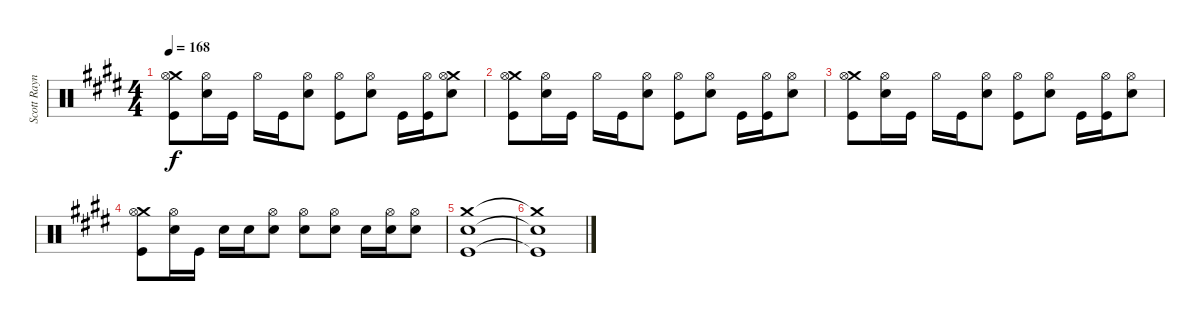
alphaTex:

\track ("Scott Raynor" "Scott Rayn") {instrument percussion}
\staff {score}
\articulation defaults
\ts (4 4)
\tempo 168
\clef neutral
\ks e
("Crash medium (hit)" "Hi-Hat (open)" "Kick (hit)").8{dy f} ("Hi-Hat (open)" "Electric Snare (hit)").16 "Kick (hit)".16 "Hi-Hat (open)".16 "Kick (hit)".16 ("Hi-Hat (open)" "Electric Snare (hit)").8 ("Hi-Hat (open)" "Kick (hit)").8 ("Hi-Hat (open)" "Electric Snare (hit)").8 "Kick (hit)".16 ("Hi-Hat (open)" "Kick (hit)").16 ("Crash medium (hit)" "Hi-Hat (open)" "Electric Snare (hit)").8 |
("Crash medium (hit)" "Hi-Hat (open)" "Kick (hit)").8 ("Hi-Hat (open)" "Electric Snare (hit)").16 "Kick (hit)".16 "Hi-Hat (open)".16 "Kick (hit)".16 ("Hi-Hat (open)" "Electric Snare (hit)").8 ("Hi-Hat (open)" "Kick (hit)").8 ("Hi-Hat (open)" "Electric Snare (hit)").8 "Kick (hit)".16 ("Hi-Hat (open)" "Kick (hit)").16 ("Hi-Hat (open)" "Electric Snare (hit)").8 |
("Crash medium (hit)" "Hi-Hat (open)" "Kick (hit)").8 ("Hi-Hat (open)" "Electric Snare (hit)").16 "Kick (hit)".16 "Hi-Hat (open)".16 "Kick (hit)".16 ("Hi-Hat (open)" "Electric Snare (hit)").8 ("Hi-Hat (open)" "Kick (hit)").8 ("Hi-Hat (open)" "Electric Snare (hit)").8 "Kick (hit)".16 ("Hi-Hat (open)" "Kick (hit)").16 ("Hi-Hat (open)" "Electric Snare (hit)").8 |
("Crash medium (hit)" "Hi-Hat (open)" "Kick (hit)").8 ("Hi-Hat (open)" "Electric Snare (hit)").16 "Kick (hit)".16 "Electric Snare (hit)".16 "Electric Snare (hit)".16 ("Hi-Hat (open)" "Electric Snare (hit)").8 ("Hi-Hat (open)" "Electric Snare (hit)").8 ("Hi-Hat (open)" "Electric Snare (hit)").8 "Electric Snare (hit)".16 ("Hi-Hat (open)" "Electric Snare (hit)").16 ("Hi-Hat (open)" "Electric Snare (hit)").8 |
("Crash medium (hit)" "Electric Snare (hit)" "Kick (hit)").1{volume 0} |
("Crash medium (hit)"{t} "Electric Snare (hit)"{t} "Kick (hit)"{t}).1
